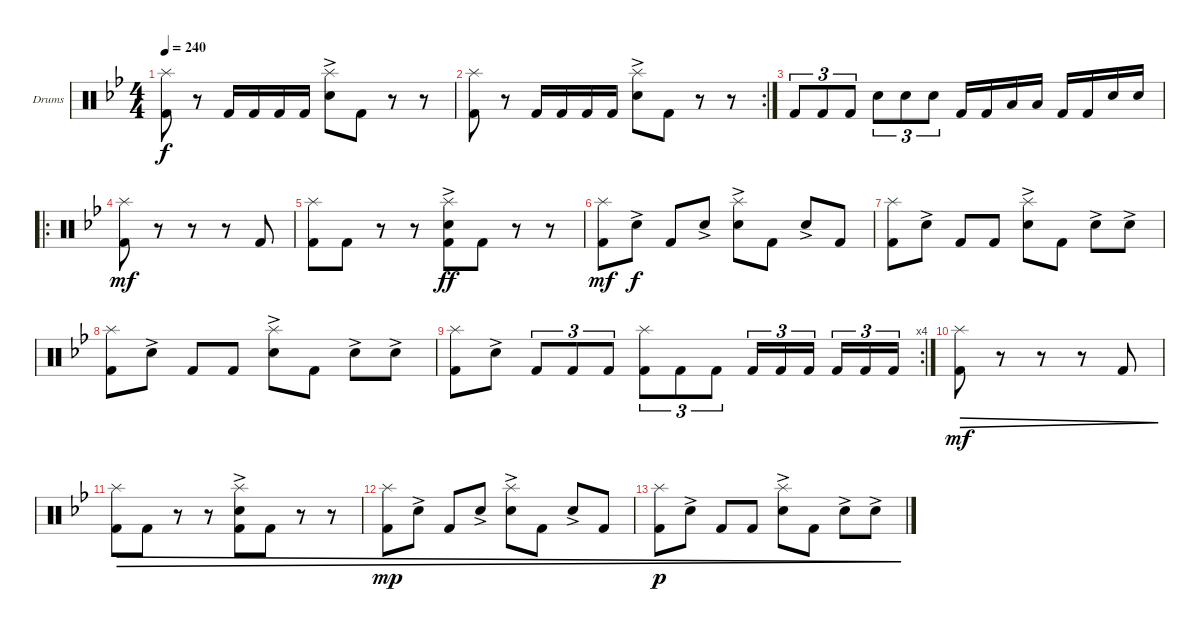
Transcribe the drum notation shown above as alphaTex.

\defaultSystemsLayout 4
\bracketExtendMode groupsimilarinstruments
\firstSystemTrackNameOrientation horizontal
\otherSystemsTrackNameOrientation horizontal
\track ("Drumkit" "Drums") {instrument percussion}
\staff {score}
\articulation defaults
\ts (4 4)
\tempo 240
\clef neutral
\ks bb
("Kick (hit) 2"{acc forcenatural} "Splash (hit)"{acc forcenatural}).8{dy f beam Down} r.8{beam Down} "Kick (hit) 2"{acc forcenatural}.16{beam Up} "Kick (hit) 2"{acc forcenatural}.16{beam Up} "Kick (hit) 2"{acc forcenatural}.16{beam Up} "Kick (hit) 2"{acc forcenatural}.16{beam Up} ("Splash (hit)"{acc forcenatural} "Snare (hit) 2"{ac acc forcenatural}).8{beam Down} "Kick (hit) 2"{acc forcenatural}.8{beam Down} r.8{beam Down} r.8{beam Down} |
\rc 2
("Kick (hit) 2"{acc forcenatural} "Splash (hit)"{acc forcenatural}).8{beam Down} r.8{beam Down} "Kick (hit) 2"{acc forcenatural}.16{beam Up} "Kick (hit) 2"{acc forcenatural}.16{beam Up} "Kick (hit) 2"{acc forcenatural}.16{beam Up} "Kick (hit) 2"{acc forcenatural}.16{beam Up} ("Splash (hit)"{acc forcenatural} "Snare (hit) 2"{ac acc forcenatural}).8{beam Down} "Kick (hit) 2"{acc forcenatural}.8{beam Down} r.8{beam Down} r.8{beam Down} |
"Kick (hit) 2"{acc forcenatural}.8{tu (3 2) beam Up} "Kick (hit) 2"{acc forcenatural}.8{tu (3 2) beam Up} "Kick (hit) 2"{acc forcenatural}.8{tu (3 2) beam Up} "Snare (hit) 2"{acc forcenatural}.8{tu (3 2) beam Down} "Snare (hit) 2"{acc forcenatural}.8{tu (3 2) beam Down} "Snare (hit) 2"{acc forcenatural}.8{tu (3 2) beam Down} "Kick (hit) 2"{acc forcenatural}.16{beam Up} "Kick (hit) 2"{acc forcenatural}.16{beam Up} "Low Tom (hit)"{acc forcenatural}.16{beam Up} "Low Tom (hit)"{acc forcenatural}.16{beam Up} "Kick (hit) 2"{acc forcenatural}.16{beam Up} "Kick (hit) 2"{acc forcenatural}.16{beam Up} "Snare (hit) 2"{acc forcenatural}.16{beam Up} "Snare (hit) 2"{acc forcenatural}.16{beam Up} |
\ro
("Kick (hit) 2"{acc forcenatural} "Splash (hit)"{acc forcenatural}).8{dy mf beam Down} r.8{beam Down} r.8{beam Down} r.8{beam Down} "Kick (hit) 2"{acc forcenatural}.8{beam Up} |
("Kick (hit) 2"{acc forcenatural} "Splash (hit)"{acc forcenatural}).8{beam Down} "Kick (hit) 2"{acc forcenatural}.8{beam Down} r.8{beam Down} r.8{beam Down} ("Kick (hit) 2"{acc forcenatural} "Splash (hit)"{acc forcenatural} "Snare (hit) 2"{ac acc forcenatural}).8{dy ff beam Down} "Kick (hit) 2"{acc forcenatural}.8{beam Down} r.8{beam Down} r.8{beam Down} |
("Kick (hit) 2"{acc forcenatural} "Splash (hit)"{acc forcenatural}).8{dy mf beam Down} "Snare (hit) 2"{ac acc forcenatural}.8{dy f beam Down} "Kick (hit) 2"{acc forcenatural}.8{beam Up} "Snare (hit) 2"{ac acc forcenatural}.8{beam Up} ("Splash (hit)"{acc forcenatural} "Snare (hit) 2"{ac acc forcenatural}).8{beam Down} "Kick (hit) 2"{acc forcenatural}.8{beam Down} "Snare (hit) 2"{ac acc forcenatural}.8{beam Up} "Kick (hit) 2"{acc forcenatural}.8{beam Up} |
("Kick (hit) 2"{acc forcenatural} "Splash (hit)"{acc forcenatural}).8{beam Down} "Snare (hit) 2"{ac acc forcenatural}.8{beam Down} "Kick (hit) 2"{acc forcenatural}.8{beam Up} "Kick (hit) 2"{acc forcenatural}.8{beam Up} ("Splash (hit)"{acc forcenatural} "Snare (hit) 2"{ac acc forcenatural}).8{beam Down} "Kick (hit) 2"{acc forcenatural}.8{beam Down} "Snare (hit) 2"{ac acc forcenatural}.8{beam Down} "Snare (hit) 2"{ac acc forcenatural}.8{beam Down} |
("Kick (hit) 2"{acc forcenatural} "Splash (hit)"{acc forcenatural}).8{beam Down} "Snare (hit) 2"{ac acc forcenatural}.8{beam Down} "Kick (hit) 2"{acc forcenatural}.8{beam Up} "Kick (hit) 2"{acc forcenatural}.8{beam Up} ("Splash (hit)"{acc forcenatural} "Snare (hit) 2"{ac acc forcenatural}).8{beam Down} "Kick (hit) 2"{acc forcenatural}.8{beam Down} "Snare (hit) 2"{ac acc forcenatural}.8{beam Down} "Snare (hit) 2"{ac acc forcenatural}.8{beam Down} |
\rc 4
("Kick (hit) 2"{acc forcenatural} "Splash (hit)"{acc forcenatural}).8{beam Down} "Snare (hit) 2"{ac acc forcenatural}.8{beam Down} "Kick (hit) 2"{acc forcenatural}.8{tu (3 2) beam Up} "Kick (hit) 2"{acc forcenatural}.8{tu (3 2) beam Up} "Kick (hit) 2"{acc forcenatural}.8{tu (3 2) beam Up} ("Kick (hit) 2"{acc forcenatural} "Splash (hit)"{acc forcenatural}).8{tu (3 2) beam Down} "Kick (hit) 2"{acc forcenatural}.8{tu (3 2) beam Down} "Kick (hit) 2"{acc forcenatural}.8{tu (3 2) beam Down} "Kick (hit) 2"{acc forcenatural}.16{tu (3 2) beam Up} "Kick (hit) 2"{acc forcenatural}.16{tu (3 2) beam Up} "Kick (hit) 2"{acc forcenatural}.16{tu (3 2) beam Up} "Kick (hit) 2"{acc forcenatural}.16{tu (3 2) beam Up} "Kick (hit) 2"{acc forcenatural}.16{tu (3 2) beam Up} "Kick (hit) 2"{acc forcenatural}.16{tu (3 2) beam Up} |
("Kick (hit) 2"{acc forcenatural} "Splash (hit)"{acc forcenatural}).8{dec dy mf beam Down} r.8{dec beam Down} r.8{dec beam Down} r.8{dec beam Down} "Kick (hit) 2"{acc forcenatural}.8{dec beam Up} |
("Kick (hit) 2"{acc forcenatural} "Splash (hit)"{acc forcenatural}).8{dec beam Down} "Kick (hit) 2"{acc forcenatural}.8{dec beam Down} r.8{dec beam Down} r.8{dec beam Down} ("Kick (hit) 2"{acc forcenatural} "Splash (hit)"{acc forcenatural} "Snare (hit) 2"{ac acc forcenatural}).8{dec beam Down} "Kick (hit) 2"{acc forcenatural}.8{dec beam Down} r.8{dec beam Down} r.8{dec beam Down} |
("Kick (hit) 2"{acc forcenatural} "Splash (hit)"{acc forcenatural}).8{dec dy mp beam Down} "Snare (hit) 2"{ac acc forcenatural}.8{dec beam Down} "Kick (hit) 2"{acc forcenatural}.8{dec beam Up} "Snare (hit) 2"{ac acc forcenatural}.8{dec beam Up} ("Splash (hit)"{acc forcenatural} "Snare (hit) 2"{ac acc forcenatural}).8{dec beam Down} "Kick (hit) 2"{acc forcenatural}.8{dec beam Down} "Snare (hit) 2"{ac acc forcenatural}.8{dec beam Up} "Kick (hit) 2"{acc forcenatural}.8{dec beam Up} |
("Kick (hit) 2"{acc forcenatural} "Splash (hit)"{acc forcenatural}).8{dec dy p beam Down} "Snare (hit) 2"{ac acc forcenatural}.8{dec beam Down} "Kick (hit) 2"{acc forcenatural}.8{dec beam Up} "Kick (hit) 2"{acc forcenatural}.8{dec beam Up} ("Splash (hit)"{acc forcenatural} "Snare (hit) 2"{ac acc forcenatural}).8{dec beam Down} "Kick (hit) 2"{acc forcenatural}.8{dec beam Down} "Snare (hit) 2"{ac acc forcenatural}.8{dec beam Down} "Snare (hit) 2"{ac acc forcenatural}.8{dec beam Down}
